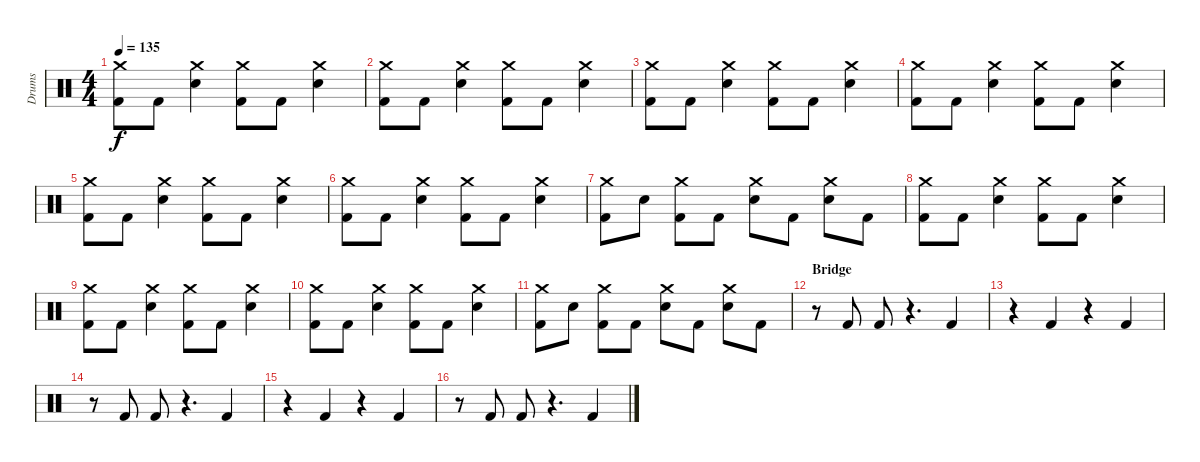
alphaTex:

\track ("Drums" "Drums") {instrument percussion}
\staff {score}
\articulation defaults
\ts (4 4)
\tempo 135
\clef neutral
\ks c
("Crash medium (hit)" "Kick (hit) 2").8{dy f} "Kick (hit) 2".8 ("Crash medium (hit)" "Electric Snare (hit)").4 ("Crash medium (hit)" "Kick (hit) 2").8 "Kick (hit) 2".8 ("Crash medium (hit)" "Electric Snare (hit)").4 |
("Crash medium (hit)" "Kick (hit) 2").8 "Kick (hit) 2".8 ("Crash medium (hit)" "Electric Snare (hit)").4 ("Crash medium (hit)" "Kick (hit) 2").8 "Kick (hit) 2".8 ("Crash medium (hit)" "Electric Snare (hit)").4 |
("Crash medium (hit)" "Kick (hit) 2").8 "Kick (hit) 2".8 ("Crash medium (hit)" "Electric Snare (hit)").4 ("Crash medium (hit)" "Kick (hit) 2").8 "Kick (hit) 2".8 ("Crash medium (hit)" "Electric Snare (hit)").4 |
("Crash medium (hit)" "Kick (hit) 2").8 "Kick (hit) 2".8 ("Crash medium (hit)" "Electric Snare (hit)").4 ("Crash medium (hit)" "Kick (hit) 2").8 "Kick (hit) 2".8 ("Crash medium (hit)" "Electric Snare (hit)").4 |
("Crash medium (hit)" "Kick (hit) 2").8 "Kick (hit) 2".8 ("Crash medium (hit)" "Electric Snare (hit)").4 ("Crash medium (hit)" "Kick (hit) 2").8 "Kick (hit) 2".8 ("Crash medium (hit)" "Electric Snare (hit)").4 |
("Crash medium (hit)" "Kick (hit) 2").8 "Kick (hit) 2".8 ("Crash medium (hit)" "Electric Snare (hit)").4 ("Crash medium (hit)" "Kick (hit) 2").8 "Kick (hit) 2".8 ("Crash medium (hit)" "Electric Snare (hit)").4 |
("Crash medium (hit)" "Kick (hit) 2").8 "Electric Snare (hit)".8 ("Crash medium (hit)" "Kick (hit) 2").8 "Kick (hit) 2".8 ("Crash medium (hit)" "Electric Snare (hit)").8 "Kick (hit) 2".8 ("Crash medium (hit)" "Electric Snare (hit)").8 "Kick (hit) 2".8 |
("Crash medium (hit)" "Kick (hit) 2").8 "Kick (hit) 2".8 ("Crash medium (hit)" "Electric Snare (hit)").4 ("Crash medium (hit)" "Kick (hit) 2").8 "Kick (hit) 2".8 ("Crash medium (hit)" "Electric Snare (hit)").4 |
("Crash medium (hit)" "Kick (hit) 2").8 "Kick (hit) 2".8 ("Crash medium (hit)" "Electric Snare (hit)").4 ("Crash medium (hit)" "Kick (hit) 2").8 "Kick (hit) 2".8 ("Crash medium (hit)" "Electric Snare (hit)").4 |
("Crash medium (hit)" "Kick (hit) 2").8 "Kick (hit) 2".8 ("Crash medium (hit)" "Electric Snare (hit)").4 ("Crash medium (hit)" "Kick (hit) 2").8 "Kick (hit) 2".8 ("Crash medium (hit)" "Electric Snare (hit)").4 |
("Crash medium (hit)" "Kick (hit) 2").8 "Electric Snare (hit)".8 ("Crash medium (hit)" "Kick (hit) 2").8 "Kick (hit) 2".8 ("Crash medium (hit)" "Electric Snare (hit)").8 "Kick (hit) 2".8 ("Crash medium (hit)" "Electric Snare (hit)").8 "Kick (hit) 2".8 |
\section ("" "Bridge")
r.8 "Kick (hit) 2".8 "Kick (hit) 2".8 r.4{d} "Kick (hit) 2".4 |
r.4 "Kick (hit) 2".4 r.4 "Kick (hit) 2".4 |
r.8 "Kick (hit) 2".8 "Kick (hit) 2".8 r.4{d} "Kick (hit) 2".4 |
r.4 "Kick (hit) 2".4 r.4 "Kick (hit) 2".4 |
r.8 "Kick (hit) 2".8 "Kick (hit) 2".8 r.4{d} "Kick (hit) 2".4
